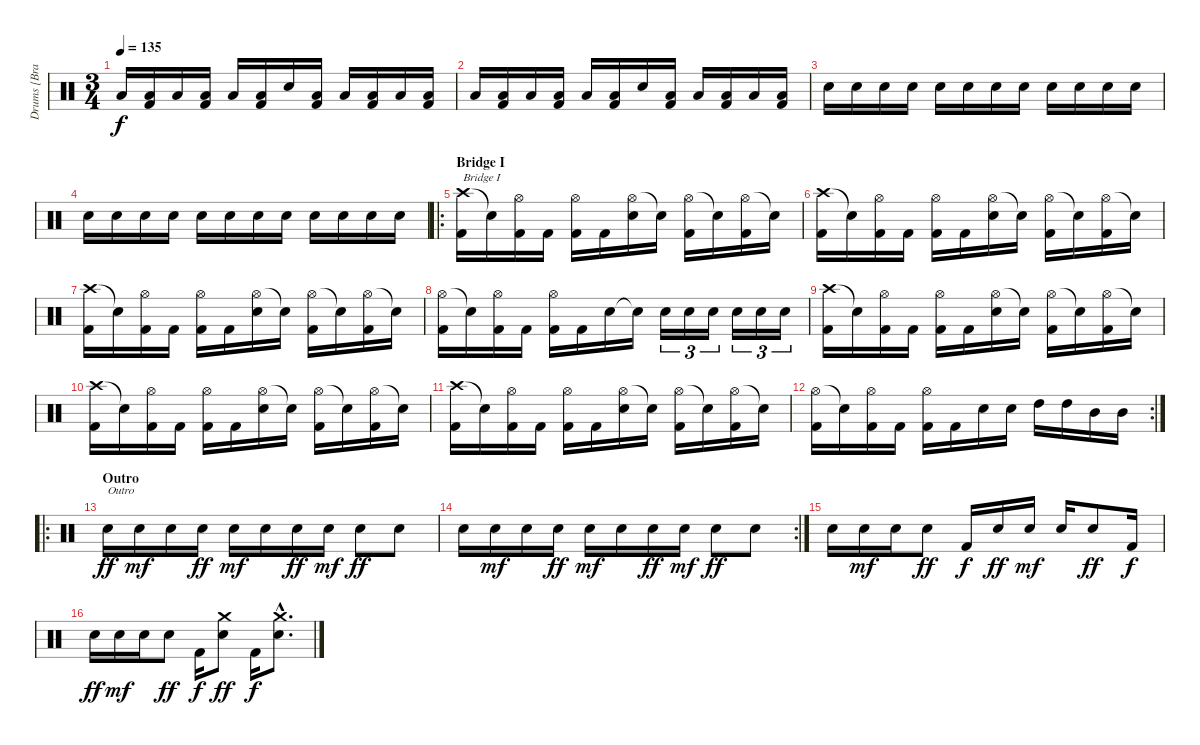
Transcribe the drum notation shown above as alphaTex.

\track ("Drums [Brann Dailor]" "Drums [Bra") {instrument percussion}
\staff {score}
\articulation defaults
\ts (3 4)
\tempo 135
\clef neutral
\ks c "Low Tom (hit)".16{dy f}
("Low Tom (hit)" "Kick (hit) 2").16 "Low Tom (hit)".16 ("Low Tom (hit)" "Kick (hit) 2").16 "Low Tom (hit)".16 ("Low Tom (hit)" "Kick (hit) 2").16 "Electric Snare (hit)".16 ("Low Tom (hit)" "Kick (hit) 2").16 "Low Tom (hit)".16 ("Low Tom (hit)" "Kick (hit) 2").16 "Low Tom (hit)".16 ("Low Tom (hit)" "Kick (hit) 2").16 |
"Low Tom (hit)".16 ("Low Tom (hit)" "Kick (hit) 2").16 "Low Tom (hit)".16 ("Low Tom (hit)" "Kick (hit) 2").16 "Low Tom (hit)".16 ("Low Tom (hit)" "Kick (hit) 2").16 "Electric Snare (hit)".16 ("Low Tom (hit)" "Kick (hit) 2").16 "Low Tom (hit)".16 ("Low Tom (hit)" "Kick (hit) 2").16 "Low Tom (hit)".16 ("Low Tom (hit)" "Kick (hit) 2").16 |
"Electric Snare (hit)".16 "Electric Snare (hit)".16 "Electric Snare (hit)".16 "Electric Snare (hit)".16 "Electric Snare (hit)".16 "Electric Snare (hit)".16 "Electric Snare (hit)".16 "Electric Snare (hit)".16 "Electric Snare (hit)".16 "Electric Snare (hit)".16 "Electric Snare (hit)".16 "Electric Snare (hit)".16 |
"Electric Snare (hit)".16 "Electric Snare (hit)".16 "Electric Snare (hit)".16 "Electric Snare (hit)".16 "Electric Snare (hit)".16 "Electric Snare (hit)".16 "Electric Snare (hit)".16 "Electric Snare (hit)".16 "Electric Snare (hit)".16 "Electric Snare (hit)".16 "Electric Snare (hit)".16 "Electric Snare (hit)".16 |
\ro
\section ("" "Bridge I")
("Crash high (hit)" "Kick (hit) 2").16{txt "Bridge I"} "Snare (hit)"{t}.16 ("Hi-Hat (open)" "Kick (hit) 2").16 "Kick (hit) 2".16 ("Hi-Hat (open)" "Kick (hit) 2").16 "Kick (hit) 2".16 ("Hi-Hat (open)" "Electric Snare (hit)").16 "Snare (hit)"{t}.16 ("Hi-Hat (open)" "Kick (hit) 2").16 "Snare (hit)"{t}.16 ("Hi-Hat (open)" "Kick (hit) 2").16 "Snare (hit)"{t}.16 |
("Crash high (hit)" "Kick (hit) 2").16 "Snare (hit)"{t}.16 ("Hi-Hat (open)" "Kick (hit) 2").16 "Kick (hit) 2".16 ("Hi-Hat (open)" "Kick (hit) 2").16 "Kick (hit) 2".16 ("Hi-Hat (open)" "Electric Snare (hit)").16 "Snare (hit)"{t}.16 ("Hi-Hat (open)" "Kick (hit) 2").16 "Snare (hit)"{t}.16 ("Hi-Hat (open)" "Kick (hit) 2").16 "Snare (hit)"{t}.16 |
("Crash high (hit)" "Kick (hit) 2").16 "Snare (hit)"{t}.16 ("Hi-Hat (open)" "Kick (hit) 2").16 "Kick (hit) 2".16 ("Hi-Hat (open)" "Kick (hit) 2").16 "Kick (hit) 2".16 ("Hi-Hat (open)" "Electric Snare (hit)").16 "Snare (hit)"{t}.16 ("Hi-Hat (open)" "Kick (hit) 2").16 "Snare (hit)"{t}.16 ("Hi-Hat (open)" "Kick (hit) 2").16 "Snare (hit)"{t}.16 |
("Hi-Hat (open)" "Kick (hit) 2").16 "Snare (hit)"{t}.16 ("Hi-Hat (open)" "Kick (hit) 2").16 "Kick (hit) 2".16 ("Hi-Hat (open)" "Kick (hit) 2").16 "Kick (hit) 2".16 "Electric Snare (hit)".16 "Electric Snare (hit)"{t}.16 "Electric Snare (hit)".16{tu (3 2)} "Electric Snare (hit)".16{tu (3 2)} "Electric Snare (hit)".16{tu (3 2)} "Electric Snare (hit)".16{tu (3 2)} "Electric Snare (hit)".16{tu (3 2)} "Electric Snare (hit)".16{tu (3 2)} |
("Crash high (hit)" "Kick (hit) 2").16 "Snare (hit)"{t}.16 ("Hi-Hat (open)" "Kick (hit) 2").16 "Kick (hit) 2".16 ("Hi-Hat (open)" "Kick (hit) 2").16 "Kick (hit) 2".16 ("Hi-Hat (open)" "Electric Snare (hit)").16 "Snare (hit)"{t}.16 ("Hi-Hat (open)" "Kick (hit) 2").16 "Snare (hit)"{t}.16 ("Hi-Hat (open)" "Kick (hit) 2").16 "Snare (hit)"{t}.16 |
("Crash high (hit)" "Kick (hit) 2").16 "Snare (hit)"{t}.16 ("Hi-Hat (open)" "Kick (hit) 2").16 "Kick (hit) 2".16 ("Hi-Hat (open)" "Kick (hit) 2").16 "Kick (hit) 2".16 ("Hi-Hat (open)" "Electric Snare (hit)").16 "Snare (hit)"{t}.16 ("Hi-Hat (open)" "Kick (hit) 2").16 "Snare (hit)"{t}.16 ("Hi-Hat (open)" "Kick (hit) 2").16 "Snare (hit)"{t}.16 |
("Crash high (hit)" "Kick (hit) 2").16 "Snare (hit)"{t}.16 ("Hi-Hat (open)" "Kick (hit) 2").16 "Kick (hit) 2".16 ("Hi-Hat (open)" "Kick (hit) 2").16 "Kick (hit) 2".16 ("Hi-Hat (open)" "Electric Snare (hit)").16 "Snare (hit)"{t}.16 ("Hi-Hat (open)" "Kick (hit) 2").16 "Snare (hit)"{t}.16 ("Hi-Hat (open)" "Kick (hit) 2").16 "Snare (hit)"{t}.16 |
\rc 2
("Hi-Hat (open)" "Kick (hit) 2").16 "Snare (hit)"{t}.16 ("Hi-Hat (open)" "Kick (hit) 2").16 "Kick (hit) 2".16 ("Hi-Hat (open)" "Kick (hit) 2").16 "Kick (hit) 2".16 "Electric Snare (hit)".16 "Electric Snare (hit)".16 "High Tom (hit)".16 "High Tom (hit)".16 "Mid Tom (hit)".16 "Mid Tom (hit)".16 |
\ro
\section ("" "Outro")
"Electric Snare (hit)".16{txt "Outro" dy ff} "Electric Snare (hit)".16{dy mf} "Electric Snare (hit)".16 "Electric Snare (hit)".16{dy ff} "Electric Snare (hit)".16{dy mf} "Electric Snare (hit)".16 "Electric Snare (hit)".16{dy ff} "Electric Snare (hit)".16{dy mf} "Electric Snare (hit)".8{dy ff} "Electric Snare (hit)".8 |
\rc 2 "Electric Snare (hit)".16 "Electric Snare (hit)".16{dy mf} "Electric Snare (hit)".16 "Electric Snare (hit)".16{dy ff} "Electric Snare (hit)".16{dy mf} "Electric Snare (hit)".16 "Electric Snare (hit)".16{dy ff} "Electric Snare (hit)".16{dy mf} "Electric Snare (hit)".8{dy ff} "Electric Snare (hit)".8
|
"Electric Snare (hit)".16 "Electric Snare (hit)".16{dy mf} "Electric Snare (hit)".16 "Electric Snare (hit)".8{dy ff} "Kick (hit) 2".16{dy f} "Electric Snare (hit)".16{dy ff} "Electric Snare (hit)".16{dy mf} "Electric Snare (hit)".16 "Electric Snare (hit)".8{dy ff} "Kick (hit) 2".16{dy f} |
"Electric Snare (hit)".16{dy ff} "Electric Snare (hit)".16{dy mf} "Electric Snare (hit)".16 "Electric Snare (hit)".8{dy ff} "Kick (hit) 2".16{dy f} ("Crash medium (hit)" "Electric Snare (hit)").8{dy ff} "Kick (hit) 2".16{dy f} ("Crash medium (hit)"{hac} "Electric Snare (hit)"{hac}).8{d}
